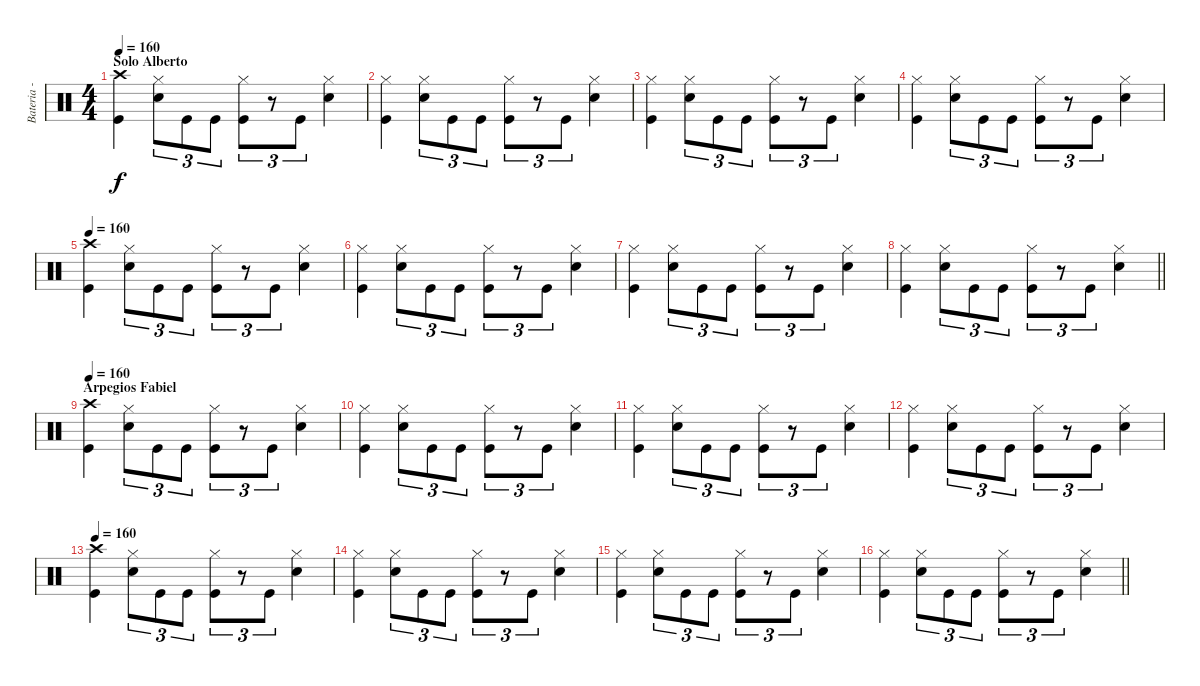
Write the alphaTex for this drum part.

\track ("Bateria - Joaquin" "Bateria - ") {instrument percussion}
\staff {score}
\articulation defaults
\ts (4 4)
\section ("" "Solo Alberto")
\tempo 160
\clef neutral
\ks c
("Crash high (hit)" "Kick (hit)").4{dy f} ("Snare (hit) 2" "Hi-Hat (closed)").8{tu (3 2)} "Kick (hit)".8{tu (3 2)} "Kick (hit)".8{tu (3 2)} ("Hi-Hat (closed)" "Kick (hit)").8{tu (3 2)} r.8{tu (3 2)} "Kick (hit)".8{tu (3 2)} ("Hi-Hat (closed)" "Snare (hit) 2").4 |
("Hi-Hat (closed)" "Kick (hit)").4 ("Snare (hit) 2" "Hi-Hat (closed)").8{tu (3 2)} "Kick (hit)".8{tu (3 2)} "Kick (hit)".8{tu (3 2)} ("Hi-Hat (closed)" "Kick (hit)").8{tu (3 2)} r.8{tu (3 2)} "Kick (hit)".8{tu (3 2)} ("Hi-Hat (closed)" "Snare (hit) 2").4 |
("Hi-Hat (closed)" "Kick (hit)").4 ("Snare (hit) 2" "Hi-Hat (closed)").8{tu (3 2)} "Kick (hit)".8{tu (3 2)} "Kick (hit)".8{tu (3 2)} ("Hi-Hat (closed)" "Kick (hit)").8{tu (3 2)} r.8{tu (3 2)} "Kick (hit)".8{tu (3 2)} ("Hi-Hat (closed)" "Snare (hit) 2").4 |
("Hi-Hat (closed)" "Kick (hit)").4 ("Snare (hit) 2" "Hi-Hat (closed)").8{tu (3 2)} "Kick (hit)".8{tu (3 2)} "Kick (hit)".8{tu (3 2)} ("Hi-Hat (closed)" "Kick (hit)").8{tu (3 2)} r.8{tu (3 2)} "Kick (hit)".8{tu (3 2)} ("Hi-Hat (closed)" "Snare (hit) 2").4 |
\tempo 160
("Crash high (hit)" "Kick (hit)").4 ("Snare (hit) 2" "Hi-Hat (closed)").8{tu (3 2)} "Kick (hit)".8{tu (3 2)} "Kick (hit)".8{tu (3 2)} ("Hi-Hat (closed)" "Kick (hit)").8{tu (3 2)} r.8{tu (3 2)} "Kick (hit)".8{tu (3 2)} ("Hi-Hat (closed)" "Snare (hit) 2").4 |
("Hi-Hat (closed)" "Kick (hit)").4 ("Snare (hit) 2" "Hi-Hat (closed)").8{tu (3 2)} "Kick (hit)".8{tu (3 2)} "Kick (hit)".8{tu (3 2)} ("Hi-Hat (closed)" "Kick (hit)").8{tu (3 2)} r.8{tu (3 2)} "Kick (hit)".8{tu (3 2)} ("Hi-Hat (closed)" "Snare (hit) 2").4 |
("Hi-Hat (closed)" "Kick (hit)").4 ("Snare (hit) 2" "Hi-Hat (closed)").8{tu (3 2)} "Kick (hit)".8{tu (3 2)} "Kick (hit)".8{tu (3 2)} ("Hi-Hat (closed)" "Kick (hit)").8{tu (3 2)} r.8{tu (3 2)} "Kick (hit)".8{tu (3 2)} ("Hi-Hat (closed)" "Snare (hit) 2").4 |
\barLineRight lightlight
("Hi-Hat (closed)" "Kick (hit)").4 ("Snare (hit) 2" "Hi-Hat (closed)").8{tu (3 2)} "Kick (hit)".8{tu (3 2)} "Kick (hit)".8{tu (3 2)} ("Hi-Hat (closed)" "Kick (hit)").8{tu (3 2)} r.8{tu (3 2)} "Kick (hit)".8{tu (3 2)} ("Hi-Hat (closed)" "Snare (hit) 2").4 |
\section ("" "Arpegios Fabiel")
\tempo 160
("Crash high (hit)" "Kick (hit)").4 ("Snare (hit) 2" "Hi-Hat (closed)").8{tu (3 2)} "Kick (hit)".8{tu (3 2)} "Kick (hit)".8{tu (3 2)} ("Hi-Hat (closed)" "Kick (hit)").8{tu (3 2)} r.8{tu (3 2)} "Kick (hit)".8{tu (3 2)} ("Hi-Hat (closed)" "Snare (hit) 2").4 |
("Hi-Hat (closed)" "Kick (hit)").4 ("Snare (hit) 2" "Hi-Hat (closed)").8{tu (3 2)} "Kick (hit)".8{tu (3 2)} "Kick (hit)".8{tu (3 2)} ("Hi-Hat (closed)" "Kick (hit)").8{tu (3 2)} r.8{tu (3 2)} "Kick (hit)".8{tu (3 2)} ("Hi-Hat (closed)" "Snare (hit) 2").4 |
("Hi-Hat (closed)" "Kick (hit)").4 ("Snare (hit) 2" "Hi-Hat (closed)").8{tu (3 2)} "Kick (hit)".8{tu (3 2)} "Kick (hit)".8{tu (3 2)} ("Hi-Hat (closed)" "Kick (hit)").8{tu (3 2)} r.8{tu (3 2)} "Kick (hit)".8{tu (3 2)} ("Hi-Hat (closed)" "Snare (hit) 2").4 |
("Hi-Hat (closed)" "Kick (hit)").4 ("Snare (hit) 2" "Hi-Hat (closed)").8{tu (3 2)} "Kick (hit)".8{tu (3 2)} "Kick (hit)".8{tu (3 2)} ("Hi-Hat (closed)" "Kick (hit)").8{tu (3 2)} r.8{tu (3 2)} "Kick (hit)".8{tu (3 2)} ("Hi-Hat (closed)" "Snare (hit) 2").4 |
\tempo 160
("Crash high (hit)" "Kick (hit)").4 ("Snare (hit) 2" "Hi-Hat (closed)").8{tu (3 2)} "Kick (hit)".8{tu (3 2)} "Kick (hit)".8{tu (3 2)} ("Hi-Hat (closed)" "Kick (hit)").8{tu (3 2)} r.8{tu (3 2)} "Kick (hit)".8{tu (3 2)} ("Hi-Hat (closed)" "Snare (hit) 2").4 |
("Hi-Hat (closed)" "Kick (hit)").4 ("Snare (hit) 2" "Hi-Hat (closed)").8{tu (3 2)} "Kick (hit)".8{tu (3 2)} "Kick (hit)".8{tu (3 2)} ("Hi-Hat (closed)" "Kick (hit)").8{tu (3 2)} r.8{tu (3 2)} "Kick (hit)".8{tu (3 2)} ("Hi-Hat (closed)" "Snare (hit) 2").4 |
("Hi-Hat (closed)" "Kick (hit)").4 ("Snare (hit) 2" "Hi-Hat (closed)").8{tu (3 2)} "Kick (hit)".8{tu (3 2)} "Kick (hit)".8{tu (3 2)} ("Hi-Hat (closed)" "Kick (hit)").8{tu (3 2)} r.8{tu (3 2)} "Kick (hit)".8{tu (3 2)} ("Hi-Hat (closed)" "Snare (hit) 2").4 |
\barLineRight lightlight
("Hi-Hat (closed)" "Kick (hit)").4 ("Snare (hit) 2" "Hi-Hat (closed)").8{tu (3 2)} "Kick (hit)".8{tu (3 2)} "Kick (hit)".8{tu (3 2)} ("Hi-Hat (closed)" "Kick (hit)").8{tu (3 2)} r.8{tu (3 2)} "Kick (hit)".8{tu (3 2)} ("Hi-Hat (closed)" "Snare (hit) 2").4
